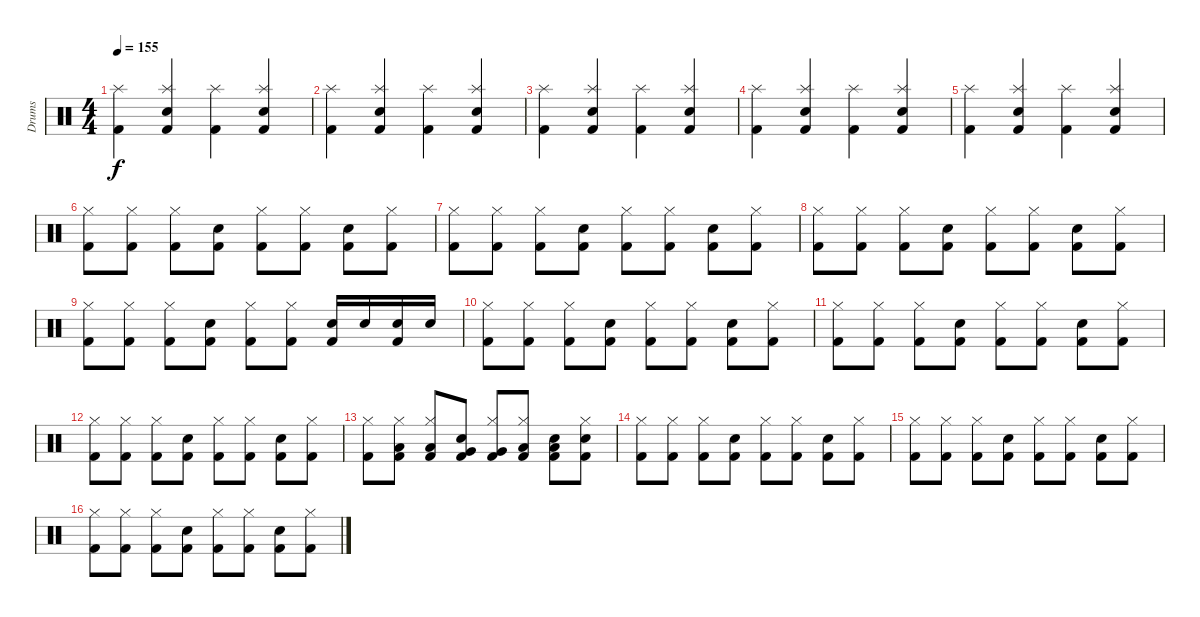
\track ("Drums" "Drums") {instrument percussion}
\staff {score}
\articulation defaults
\ts (4 4)
\tempo 155
\clef neutral
\ks c
("Kick (hit) 2" "Splash (hit)").4{dy f} ("Kick (hit) 2" "Electric Snare (hit)" "Splash (hit)").4 ("Kick (hit) 2" "Splash (hit)").4 ("Kick (hit) 2" "Electric Snare (hit)" "Splash (hit)").4 |
("Kick (hit) 2" "Splash (hit)").4 ("Kick (hit) 2" "Electric Snare (hit)" "Splash (hit)").4 ("Kick (hit) 2" "Splash (hit)").4 ("Kick (hit) 2" "Electric Snare (hit)" "Splash (hit)").4 |
("Kick (hit) 2" "Splash (hit)").4 ("Kick (hit) 2" "Electric Snare (hit)" "Splash (hit)").4 ("Kick (hit) 2" "Splash (hit)").4 ("Kick (hit) 2" "Electric Snare (hit)" "Splash (hit)").4 |
("Kick (hit) 2" "Splash (hit)").4 ("Kick (hit) 2" "Electric Snare (hit)" "Splash (hit)").4 ("Kick (hit) 2" "Splash (hit)").4 ("Kick (hit) 2" "Electric Snare (hit)" "Splash (hit)").4 |
("Kick (hit) 2" "Splash (hit)").4 ("Kick (hit) 2" "Electric Snare (hit)" "Splash (hit)").4 ("Kick (hit) 2" "Splash (hit)").4 ("Kick (hit) 2" "Electric Snare (hit)" "Splash (hit)").4 |
("Kick (hit) 2" "Hi-Hat (closed)").8 ("Kick (hit) 2" "Hi-Hat (closed)").8 ("Kick (hit) 2" "Hi-Hat (closed)").8 ("Kick (hit) 2" "Electric Snare (hit)").8 ("Kick (hit) 2" "Hi-Hat (closed)").8 ("Kick (hit) 2" "Hi-Hat (closed)").8 ("Kick (hit) 2" "Electric Snare (hit)").8 ("Kick (hit) 2" "Hi-Hat (closed)").8 |
("Kick (hit) 2" "Hi-Hat (closed)").8 ("Kick (hit) 2" "Hi-Hat (closed)").8 ("Kick (hit) 2" "Hi-Hat (closed)").8 ("Kick (hit) 2" "Electric Snare (hit)").8 ("Kick (hit) 2" "Hi-Hat (closed)").8 ("Kick (hit) 2" "Hi-Hat (closed)").8 ("Kick (hit) 2" "Electric Snare (hit)").8 ("Kick (hit) 2" "Hi-Hat (closed)").8 |
("Kick (hit) 2" "Hi-Hat (closed)").8 ("Kick (hit) 2" "Hi-Hat (closed)").8 ("Kick (hit) 2" "Hi-Hat (closed)").8 ("Kick (hit) 2" "Electric Snare (hit)").8 ("Kick (hit) 2" "Hi-Hat (closed)").8 ("Kick (hit) 2" "Hi-Hat (closed)").8 ("Kick (hit) 2" "Electric Snare (hit)").8 ("Kick (hit) 2" "Hi-Hat (closed)").8 |
("Kick (hit) 2" "Hi-Hat (closed)").8 ("Kick (hit) 2" "Hi-Hat (closed)").8 ("Kick (hit) 2" "Hi-Hat (closed)").8 ("Kick (hit) 2" "Electric Snare (hit)").8 ("Kick (hit) 2" "Hi-Hat (closed)").8 ("Kick (hit) 2" "Hi-Hat (closed)").8 ("Kick (hit) 2" "Electric Snare (hit)").16 "Electric Snare (hit)".16 ("Kick (hit) 2" "Electric Snare (hit)").16 "Electric Snare (hit)".16 |
("Kick (hit) 2" "Hi-Hat (closed)").8 ("Kick (hit) 2" "Hi-Hat (closed)").8 ("Kick (hit) 2" "Hi-Hat (closed)").8 ("Kick (hit) 2" "Electric Snare (hit)").8 ("Kick (hit) 2" "Hi-Hat (closed)").8 ("Kick (hit) 2" "Hi-Hat (closed)").8 ("Kick (hit) 2" "Electric Snare (hit)").8 ("Kick (hit) 2" "Hi-Hat (closed)").8 |
("Kick (hit) 2" "Hi-Hat (closed)").8 ("Kick (hit) 2" "Hi-Hat (closed)").8 ("Kick (hit) 2" "Hi-Hat (closed)").8 ("Kick (hit) 2" "Electric Snare (hit)").8 ("Kick (hit) 2" "Hi-Hat (closed)").8 ("Kick (hit) 2" "Hi-Hat (closed)").8 ("Kick (hit) 2" "Electric Snare (hit)").8 ("Kick (hit) 2" "Hi-Hat (closed)").8 |
("Kick (hit) 2" "Hi-Hat (closed)").8 ("Kick (hit) 2" "Hi-Hat (closed)").8 ("Kick (hit) 2" "Hi-Hat (closed)").8 ("Kick (hit) 2" "Electric Snare (hit)").8 ("Kick (hit) 2" "Hi-Hat (closed)").8 ("Kick (hit) 2" "Hi-Hat (closed)").8 ("Kick (hit) 2" "Electric Snare (hit)").8 ("Kick (hit) 2" "Hi-Hat (closed)").8 |
("Kick (hit) 2" "Hi-Hat (closed)").8 ("Kick (hit) 2" "Low Tom (hit)" "Hi-Hat (closed)").8 ("Kick (hit) 2" "Low Tom (hit)" "Hi-Hat (closed)").8 ("Kick (hit) 2" "Very Low Tom (hit)" "Electric Snare (hit)").8 ("Kick (hit) 2" "Very Low Tom (hit)" "Hi-Hat (closed)").8 ("Kick (hit) 2" "Low Floor Tom (hit)" "Hi-Hat (closed)").8 ("Kick (hit) 2" "Low Floor Tom (hit)" "Electric Snare (hit)").8 ("Kick (hit) 2" "Electric Snare (hit)" "Hi-Hat (closed)").8 |
("Kick (hit) 2" "Hi-Hat (closed)").8 ("Kick (hit) 2" "Hi-Hat (closed)").8 ("Kick (hit) 2" "Hi-Hat (closed)").8 ("Kick (hit) 2" "Electric Snare (hit)").8 ("Kick (hit) 2" "Hi-Hat (closed)").8 ("Kick (hit) 2" "Hi-Hat (closed)").8 ("Kick (hit) 2" "Electric Snare (hit)").8 ("Kick (hit) 2" "Hi-Hat (closed)").8 |
("Kick (hit) 2" "Hi-Hat (closed)").8 ("Kick (hit) 2" "Hi-Hat (closed)").8 ("Kick (hit) 2" "Hi-Hat (closed)").8 ("Kick (hit) 2" "Electric Snare (hit)").8 ("Kick (hit) 2" "Hi-Hat (closed)").8 ("Kick (hit) 2" "Hi-Hat (closed)").8 ("Kick (hit) 2" "Electric Snare (hit)").8 ("Kick (hit) 2" "Hi-Hat (closed)").8 |
("Kick (hit) 2" "Hi-Hat (closed)").8 ("Kick (hit) 2" "Hi-Hat (closed)").8 ("Kick (hit) 2" "Hi-Hat (closed)").8 ("Kick (hit) 2" "Electric Snare (hit)").8 ("Kick (hit) 2" "Hi-Hat (closed)").8 ("Kick (hit) 2" "Hi-Hat (closed)").8 ("Kick (hit) 2" "Electric Snare (hit)").8 ("Kick (hit) 2" "Hi-Hat (closed)").8
